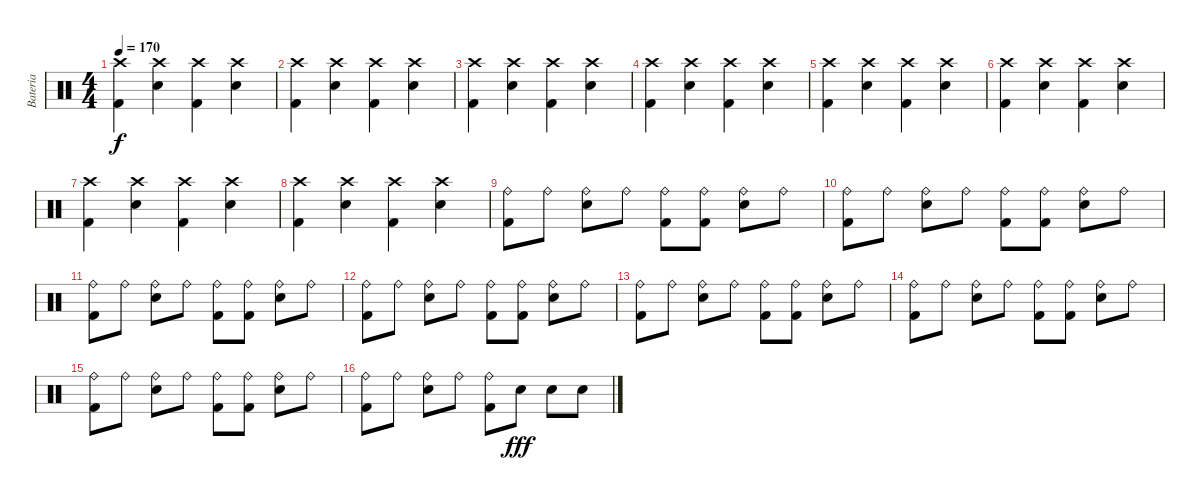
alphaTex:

\track ("Bateria" "Bateria") {instrument percussion}
\staff {score}
\articulation defaults
\ts (4 4)
\tempo 170
\clef neutral
\ks c
("Crash high (hit)" "Kick (hit) 2").4{dy f} ("Crash high (hit)" "Snare (hit) 2").4 ("Crash high (hit)" "Kick (hit) 2").4 ("Crash high (hit)" "Snare (hit) 2").4 |
("Crash high (hit)" "Kick (hit) 2").4 ("Crash high (hit)" "Snare (hit) 2").4 ("Crash high (hit)" "Kick (hit) 2").4 ("Crash high (hit)" "Snare (hit) 2").4 |
("Crash high (hit)" "Kick (hit) 2").4 ("Crash high (hit)" "Snare (hit) 2").4 ("Crash high (hit)" "Kick (hit) 2").4 ("Crash high (hit)" "Snare (hit) 2").4 |
("Crash high (hit)" "Kick (hit) 2").4 ("Crash high (hit)" "Snare (hit) 2").4 ("Crash high (hit)" "Kick (hit) 2").4 ("Crash high (hit)" "Snare (hit) 2").4 |
("Crash high (hit)" "Kick (hit) 2").4 ("Crash high (hit)" "Snare (hit) 2").4 ("Crash high (hit)" "Kick (hit) 2").4 ("Crash high (hit)" "Snare (hit) 2").4 |
("Crash high (hit)" "Kick (hit) 2").4 ("Crash high (hit)" "Snare (hit) 2").4 ("Crash high (hit)" "Kick (hit) 2").4 ("Crash high (hit)" "Snare (hit) 2").4 |
("Crash high (hit)" "Kick (hit) 2").4 ("Crash high (hit)" "Snare (hit) 2").4 ("Crash high (hit)" "Kick (hit) 2").4 ("Crash high (hit)" "Snare (hit) 2").4 |
("Crash high (hit)" "Kick (hit) 2").4 ("Crash high (hit)" "Snare (hit) 2").4 ("Crash high (hit)" "Kick (hit) 2").4 ("Crash high (hit)" "Snare (hit) 2").4 |
("Ride (bell)" "Kick (hit) 2").8 "Ride (bell)".8 ("Ride (bell)" "Snare (hit) 2").8 "Ride (bell)".8 ("Ride (bell)" "Kick (hit) 2").8 ("Ride (bell)" "Kick (hit) 2").8 ("Ride (bell)" "Snare (hit) 2").8 "Ride (bell)".8 |
("Ride (bell)" "Kick (hit) 2").8 "Ride (bell)".8 ("Ride (bell)" "Snare (hit) 2").8 "Ride (bell)".8 ("Ride (bell)" "Kick (hit) 2").8 ("Ride (bell)" "Kick (hit) 2").8 ("Ride (bell)" "Snare (hit) 2").8 "Ride (bell)".8 |
("Ride (bell)" "Kick (hit) 2").8 "Ride (bell)".8 ("Ride (bell)" "Snare (hit) 2").8 "Ride (bell)".8 ("Ride (bell)" "Kick (hit) 2").8 ("Ride (bell)" "Kick (hit) 2").8 ("Ride (bell)" "Snare (hit) 2").8 "Ride (bell)".8 |
("Ride (bell)" "Kick (hit) 2").8 "Ride (bell)".8 ("Ride (bell)" "Snare (hit) 2").8 "Ride (bell)".8 ("Ride (bell)" "Kick (hit) 2").8 ("Ride (bell)" "Kick (hit) 2").8 ("Ride (bell)" "Snare (hit) 2").8 "Ride (bell)".8 |
("Ride (bell)" "Kick (hit) 2").8 "Ride (bell)".8 ("Ride (bell)" "Snare (hit) 2").8 "Ride (bell)".8 ("Ride (bell)" "Kick (hit) 2").8 ("Ride (bell)" "Kick (hit) 2").8 ("Ride (bell)" "Snare (hit) 2").8 "Ride (bell)".8 |
("Ride (bell)" "Kick (hit) 2").8 "Ride (bell)".8 ("Ride (bell)" "Snare (hit) 2").8 "Ride (bell)".8 ("Ride (bell)" "Kick (hit) 2").8 ("Ride (bell)" "Kick (hit) 2").8 ("Ride (bell)" "Snare (hit) 2").8 "Ride (bell)".8 |
("Ride (bell)" "Kick (hit) 2").8 "Ride (bell)".8 ("Ride (bell)" "Snare (hit) 2").8 "Ride (bell)".8 ("Ride (bell)" "Kick (hit) 2").8 ("Ride (bell)" "Kick (hit) 2").8 ("Ride (bell)" "Snare (hit) 2").8 "Ride (bell)".8 |
("Ride (bell)" "Kick (hit) 2").8 "Ride (bell)".8 ("Ride (bell)" "Snare (hit) 2").8 "Ride (bell)".8 ("Ride (bell)" "Kick (hit) 2").8 "Snare (hit) 2".8{dy fff} "Snare (hit) 2".8 "Snare (hit) 2".8
